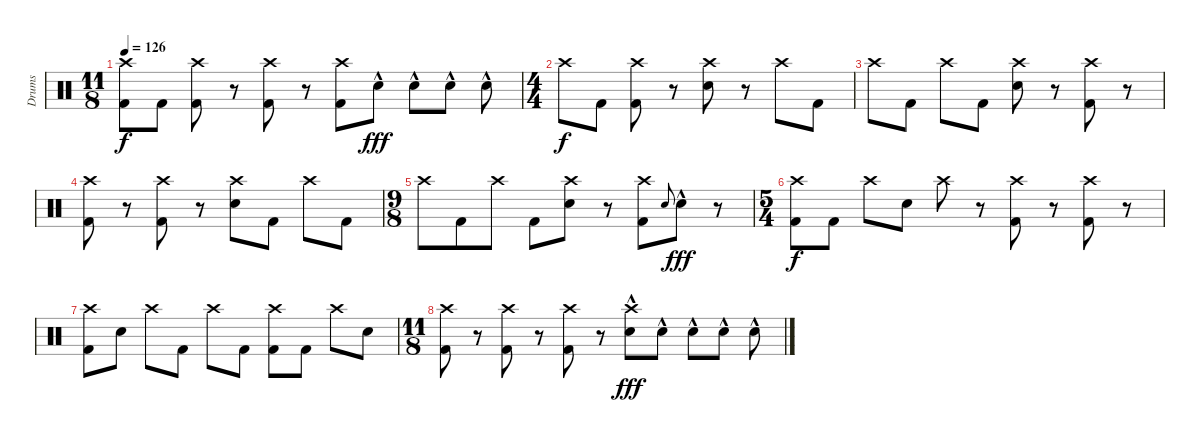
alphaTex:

\track ("Drums" "Drums") {instrument percussion}
\staff {score}
\articulation defaults
\ts (11 8)
\tempo 126
\clef neutral
\ks c
("Crash high (hit)" "Kick (hit) 2").8{dy f} "Kick (hit) 2".8 ("Crash high (hit)" "Kick (hit) 2").8 r.8 ("Crash high (hit)" "Kick (hit) 2").8 r.8 ("Crash high (hit)" "Kick (hit) 2").8 "Snare (hit) 2"{hac}.8{dy fff} "Snare (hit) 2"{hac}.8 "Snare (hit) 2"{hac}.8 "Snare (hit) 2"{hac}.8 |
\ts (4 4)
"Crash high (hit)".8{dy f} "Kick (hit) 2".8 ("Crash high (hit)" "Kick (hit) 2").8 r.8 ("Crash high (hit)" "Snare (hit) 2").8 r.8 "Crash high (hit)".8 "Kick (hit) 2".8 |
"Crash high (hit)".8 "Kick (hit) 2".8 "Crash high (hit)".8 "Kick (hit) 2".8 ("Crash high (hit)" "Snare (hit) 2").8 r.8 ("Crash high (hit)" "Kick (hit) 2").8 r.8 |
("Crash high (hit)" "Kick (hit) 2").8 r.8 ("Crash high (hit)" "Kick (hit) 2").8 r.8 ("Crash high (hit)" "Snare (hit) 2").8 "Kick (hit) 2".8 "Crash high (hit)".8 "Kick (hit) 2".8 |
\ts (9 8)
"Crash high (hit)".8 "Kick (hit) 2".8 "Crash high (hit)".8 "Kick (hit) 2".8 ("Crash high (hit)" "Snare (hit) 2").8 r.8 ("Crash high (hit)" "Kick (hit) 2").8 "Snare (hit) 2"{h}.8{gr onbeat} "Snare (hit) 2"{hac}.8{dy fff} r.8 |
\ts (5 4)
("Crash high (hit)" "Kick (hit) 2").8{dy f} "Kick (hit) 2".8 "Crash high (hit)".8 "Snare (hit) 2".8 "Crash high (hit)".8 r.8 ("Crash high (hit)" "Kick (hit) 2").8 r.8 ("Crash high (hit)" "Kick (hit) 2").8 r.8 |
("Crash high (hit)" "Kick (hit) 2").8 "Snare (hit) 2".8 "Crash high (hit)".8 "Kick (hit) 2".8 "Crash high (hit)".8 "Kick (hit) 2".8 ("Crash high (hit)" "Kick (hit) 2").8 "Kick (hit) 2".8 "Crash high (hit)".8 "Snare (hit) 2".8 |
\ts (11 8)
("Crash high (hit)" "Kick (hit) 2").8 r.8 ("Crash high (hit)" "Kick (hit) 2").8 r.8 ("Crash high (hit)" "Kick (hit) 2").8 r.8 ("Crash high (hit)" "Snare (hit) 2"{hac}).8{dy fff} "Snare (hit) 2"{hac}.8 "Snare (hit) 2"{hac}.8 "Snare (hit) 2"{hac}.8 "Snare (hit) 2"{hac}.8
